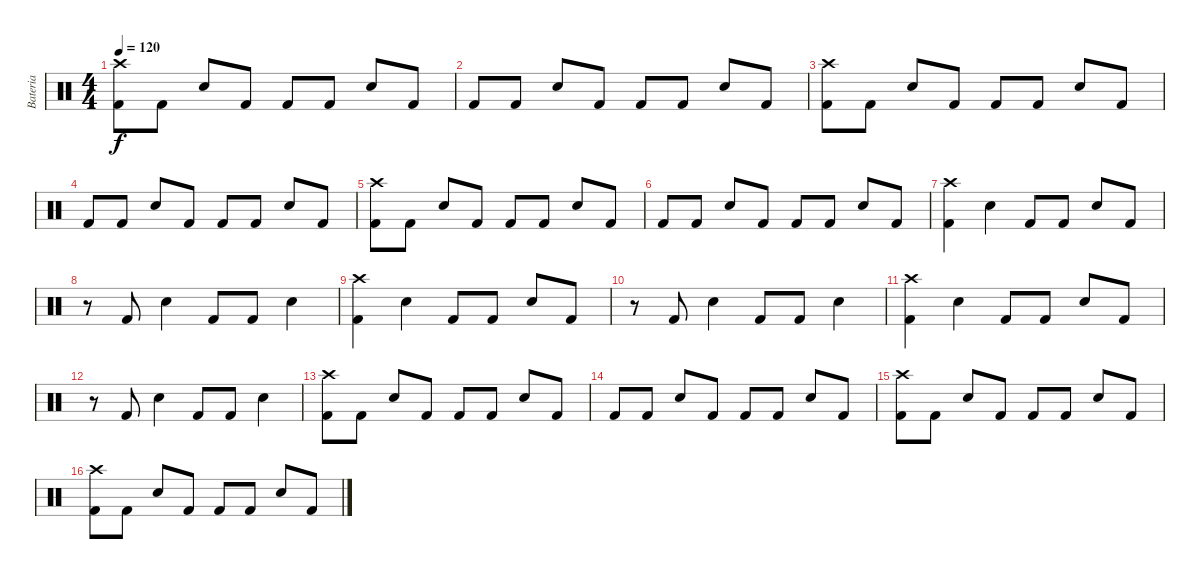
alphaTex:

\track ("Bateria" "Bateria") {instrument percussion}
\staff {score}
\articulation defaults
\ts (4 4)
\tempo 120
\clef neutral
\ks c
("Kick (hit) 2" "Crash high (hit)").8{dy f} "Kick (hit) 2".8 "Snare (hit) 2".8 "Kick (hit) 2".8 "Kick (hit) 2".8 "Kick (hit) 2".8 "Snare (hit) 2".8 "Kick (hit) 2".8 |
"Kick (hit) 2".8 "Kick (hit) 2".8 "Snare (hit) 2".8 "Kick (hit) 2".8 "Kick (hit) 2".8 "Kick (hit) 2".8 "Snare (hit) 2".8 "Kick (hit) 2".8 |
("Kick (hit) 2" "Crash high (hit)").8 "Kick (hit) 2".8 "Snare (hit) 2".8 "Kick (hit) 2".8 "Kick (hit) 2".8 "Kick (hit) 2".8 "Snare (hit) 2".8 "Kick (hit) 2".8 |
"Kick (hit) 2".8 "Kick (hit) 2".8 "Snare (hit) 2".8 "Kick (hit) 2".8 "Kick (hit) 2".8 "Kick (hit) 2".8 "Snare (hit) 2".8 "Kick (hit) 2".8 |
("Kick (hit) 2" "Crash high (hit)").8 "Kick (hit) 2".8 "Snare (hit) 2".8 "Kick (hit) 2".8 "Kick (hit) 2".8 "Kick (hit) 2".8 "Snare (hit) 2".8 "Kick (hit) 2".8 |
"Kick (hit) 2".8 "Kick (hit) 2".8 "Snare (hit) 2".8 "Kick (hit) 2".8 "Kick (hit) 2".8 "Kick (hit) 2".8 "Snare (hit) 2".8 "Kick (hit) 2".8 |
("Kick (hit) 2" "Crash high (hit)").4 "Snare (hit) 2".4 "Kick (hit) 2".8 "Kick (hit) 2".8 "Snare (hit) 2".8 "Kick (hit) 2".8 |
r.8 "Kick (hit) 2".8 "Snare (hit) 2".4 "Kick (hit) 2".8 "Kick (hit) 2".8 "Snare (hit) 2".4 |
("Kick (hit) 2" "Crash high (hit)").4 "Snare (hit) 2".4 "Kick (hit) 2".8 "Kick (hit) 2".8 "Snare (hit) 2".8 "Kick (hit) 2".8 |
r.8 "Kick (hit) 2".8 "Snare (hit) 2".4 "Kick (hit) 2".8 "Kick (hit) 2".8 "Snare (hit) 2".4 |
("Kick (hit) 2" "Crash high (hit)").4 "Snare (hit) 2".4 "Kick (hit) 2".8 "Kick (hit) 2".8 "Snare (hit) 2".8 "Kick (hit) 2".8 |
r.8 "Kick (hit) 2".8 "Snare (hit) 2".4 "Kick (hit) 2".8 "Kick (hit) 2".8 "Snare (hit) 2".4 |
("Kick (hit) 2" "Crash high (hit)").8 "Kick (hit) 2".8 "Snare (hit) 2".8 "Kick (hit) 2".8 "Kick (hit) 2".8 "Kick (hit) 2".8 "Snare (hit) 2".8 "Kick (hit) 2".8 |
"Kick (hit) 2".8 "Kick (hit) 2".8 "Snare (hit) 2".8 "Kick (hit) 2".8 "Kick (hit) 2".8 "Kick (hit) 2".8 "Snare (hit) 2".8 "Kick (hit) 2".8 |
("Kick (hit) 2" "Crash high (hit)").8 "Kick (hit) 2".8 "Snare (hit) 2".8 "Kick (hit) 2".8 "Kick (hit) 2".8 "Kick (hit) 2".8 "Snare (hit) 2".8 "Kick (hit) 2".8 |
("Kick (hit) 2" "Crash high (hit)").8 "Kick (hit) 2".8 "Snare (hit) 2".8 "Kick (hit) 2".8 "Kick (hit) 2".8 "Kick (hit) 2".8 "Snare (hit) 2".8 "Kick (hit) 2".8
